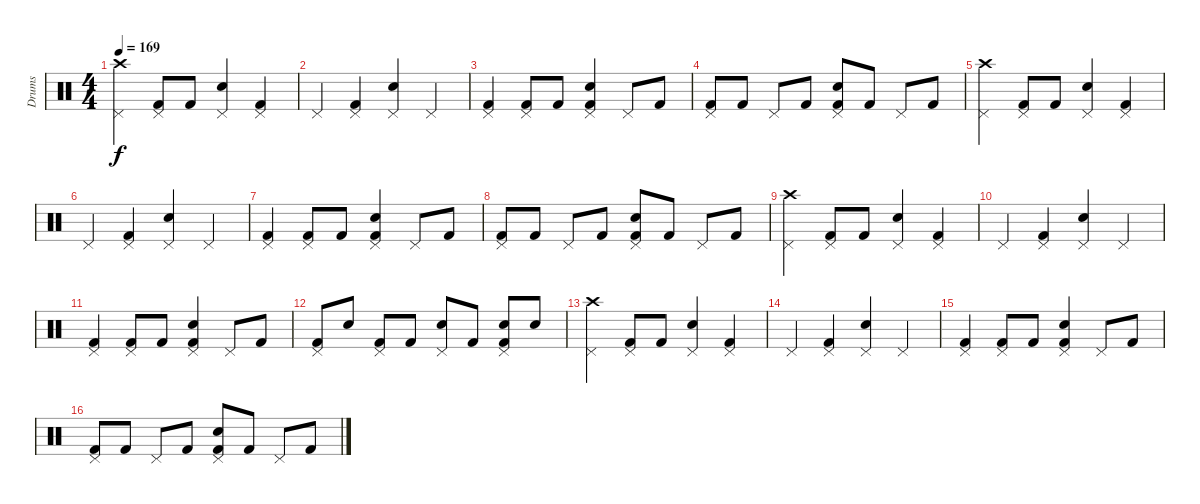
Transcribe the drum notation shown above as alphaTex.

\track ("Drums" "Drums") {instrument percussion}
\staff {score}
\articulation defaults
\ts (4 4)
\tempo 169
\clef neutral
\ks c
("Crash high (hit)" "Pedal Hi-Hat (hit)").4{dy f} ("Pedal Hi-Hat (hit)" "Kick (hit) 2").8 "Kick (hit) 2".8 ("Pedal Hi-Hat (hit)" "Snare (hit) 2").4 ("Pedal Hi-Hat (hit)" "Kick (hit) 2").4 |
"Pedal Hi-Hat (hit)".4 ("Pedal Hi-Hat (hit)" "Kick (hit) 2").4 ("Pedal Hi-Hat (hit)" "Snare (hit) 2").4 "Pedal Hi-Hat (hit)".4 |
("Pedal Hi-Hat (hit)" "Kick (hit) 2").4 ("Pedal Hi-Hat (hit)" "Kick (hit) 2").8 "Kick (hit) 2".8 ("Pedal Hi-Hat (hit)" "Snare (hit) 2" "Kick (hit) 2").4 "Pedal Hi-Hat (hit)".8 "Kick (hit) 2".8 |
("Pedal Hi-Hat (hit)" "Kick (hit) 2").8 "Kick (hit) 2".8 "Pedal Hi-Hat (hit)".8 "Kick (hit) 2".8 ("Pedal Hi-Hat (hit)" "Snare (hit) 2" "Kick (hit) 2").8 "Kick (hit) 2".8 "Pedal Hi-Hat (hit)".8 "Kick (hit) 2".8 |
("Crash high (hit)" "Pedal Hi-Hat (hit)").4 ("Pedal Hi-Hat (hit)" "Kick (hit) 2").8 "Kick (hit) 2".8 ("Pedal Hi-Hat (hit)" "Snare (hit) 2").4 ("Pedal Hi-Hat (hit)" "Kick (hit) 2").4 |
"Pedal Hi-Hat (hit)".4 ("Pedal Hi-Hat (hit)" "Kick (hit) 2").4 ("Pedal Hi-Hat (hit)" "Snare (hit) 2").4 "Pedal Hi-Hat (hit)".4 |
("Pedal Hi-Hat (hit)" "Kick (hit) 2").4 ("Pedal Hi-Hat (hit)" "Kick (hit) 2").8 "Kick (hit) 2".8 ("Pedal Hi-Hat (hit)" "Snare (hit) 2" "Kick (hit) 2").4 "Pedal Hi-Hat (hit)".8 "Kick (hit) 2".8 |
("Pedal Hi-Hat (hit)" "Kick (hit) 2").8 "Kick (hit) 2".8 "Pedal Hi-Hat (hit)".8 "Kick (hit) 2".8 ("Pedal Hi-Hat (hit)" "Snare (hit) 2" "Kick (hit) 2").8 "Kick (hit) 2".8 "Pedal Hi-Hat (hit)".8 "Kick (hit) 2".8 |
("Crash high (hit)" "Pedal Hi-Hat (hit)").4 ("Pedal Hi-Hat (hit)" "Kick (hit) 2").8 "Kick (hit) 2".8 ("Pedal Hi-Hat (hit)" "Snare (hit) 2").4 ("Pedal Hi-Hat (hit)" "Kick (hit) 2").4 |
"Pedal Hi-Hat (hit)".4 ("Pedal Hi-Hat (hit)" "Kick (hit) 2").4 ("Pedal Hi-Hat (hit)" "Snare (hit) 2").4 "Pedal Hi-Hat (hit)".4 |
("Pedal Hi-Hat (hit)" "Kick (hit) 2").4 ("Pedal Hi-Hat (hit)" "Kick (hit) 2").8 "Kick (hit) 2".8 ("Pedal Hi-Hat (hit)" "Snare (hit) 2" "Kick (hit) 2").4 "Pedal Hi-Hat (hit)".8 "Kick (hit) 2".8 |
("Pedal Hi-Hat (hit)" "Kick (hit) 2").8 "Snare (hit) 2".8 ("Pedal Hi-Hat (hit)" "Kick (hit) 2").8 "Kick (hit) 2".8 ("Pedal Hi-Hat (hit)" "Snare (hit) 2").8 "Kick (hit) 2".8 ("Pedal Hi-Hat (hit)" "Snare (hit) 2" "Kick (hit) 2").8 "Snare (hit) 2".8 |
("Crash high (hit)" "Pedal Hi-Hat (hit)").4 ("Pedal Hi-Hat (hit)" "Kick (hit) 2").8 "Kick (hit) 2".8 ("Pedal Hi-Hat (hit)" "Snare (hit) 2").4 ("Pedal Hi-Hat (hit)" "Kick (hit) 2").4 |
"Pedal Hi-Hat (hit)".4 ("Pedal Hi-Hat (hit)" "Kick (hit) 2").4 ("Pedal Hi-Hat (hit)" "Snare (hit) 2").4 "Pedal Hi-Hat (hit)".4 |
("Pedal Hi-Hat (hit)" "Kick (hit) 2").4 ("Pedal Hi-Hat (hit)" "Kick (hit) 2").8 "Kick (hit) 2".8 ("Pedal Hi-Hat (hit)" "Snare (hit) 2" "Kick (hit) 2").4 "Pedal Hi-Hat (hit)".8 "Kick (hit) 2".8 |
("Pedal Hi-Hat (hit)" "Kick (hit) 2").8 "Kick (hit) 2".8 "Pedal Hi-Hat (hit)".8 "Kick (hit) 2".8 ("Pedal Hi-Hat (hit)" "Snare (hit) 2" "Kick (hit) 2").8 "Kick (hit) 2".8 "Pedal Hi-Hat (hit)".8 "Kick (hit) 2".8
